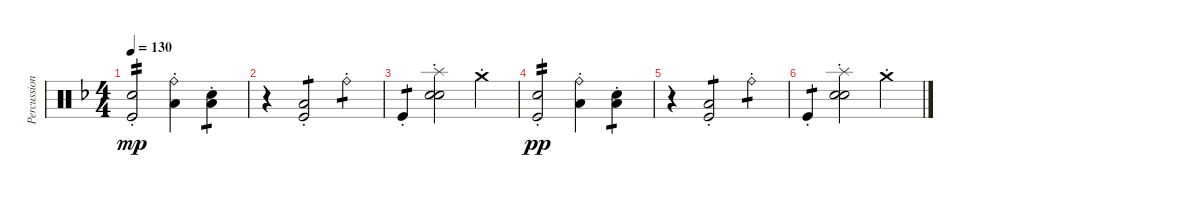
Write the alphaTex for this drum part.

\track ("Percussion" "Percussion") {instrument percussion}
\staff {score}
\articulation defaults
\ts (4 4)
\tempo 130
\clef neutral
\ks dminor
("Snare (hit) 2"{st} "Kick (hit)"{st}).2{tp 2 dy mp} ("Ride (bell)"{st} "Low Floor Tom (hit)"{st}).4 ("Low Tom (hit)"{st} "Snare (hit) 2"{st}).4{tp 1} |
r.4 ("Low Tom (hit)"{st} "Kick (hit)"{st}).2{tp 1} "Ride (bell)"{st}.4{tp 1} |
"Kick (hit)"{st}.4{tp 1} ("Splash (hit)"{st} "Snare (hit) 2"{st} "Electric Snare (hit)"{st}).2 "Crash medium (hit)"{st}.4 |
("Snare (hit) 2"{st} "Kick (hit)"{st}).2{tp 2 dy pp} ("Ride (bell)"{st} "Low Floor Tom (hit)"{st}).4 ("Low Tom (hit)"{st} "Snare (hit) 2"{st}).4{tp 1} |
r.4 ("Low Tom (hit)"{st} "Kick (hit)"{st}).2{tp 1} "Ride (bell)"{st}.4{tp 1} |
"Kick (hit)"{st}.4{tp 1} ("Splash (hit)"{st} "Snare (hit) 2"{st} "Electric Snare (hit)"{st}).2 "Crash medium (hit)"{st}.4
